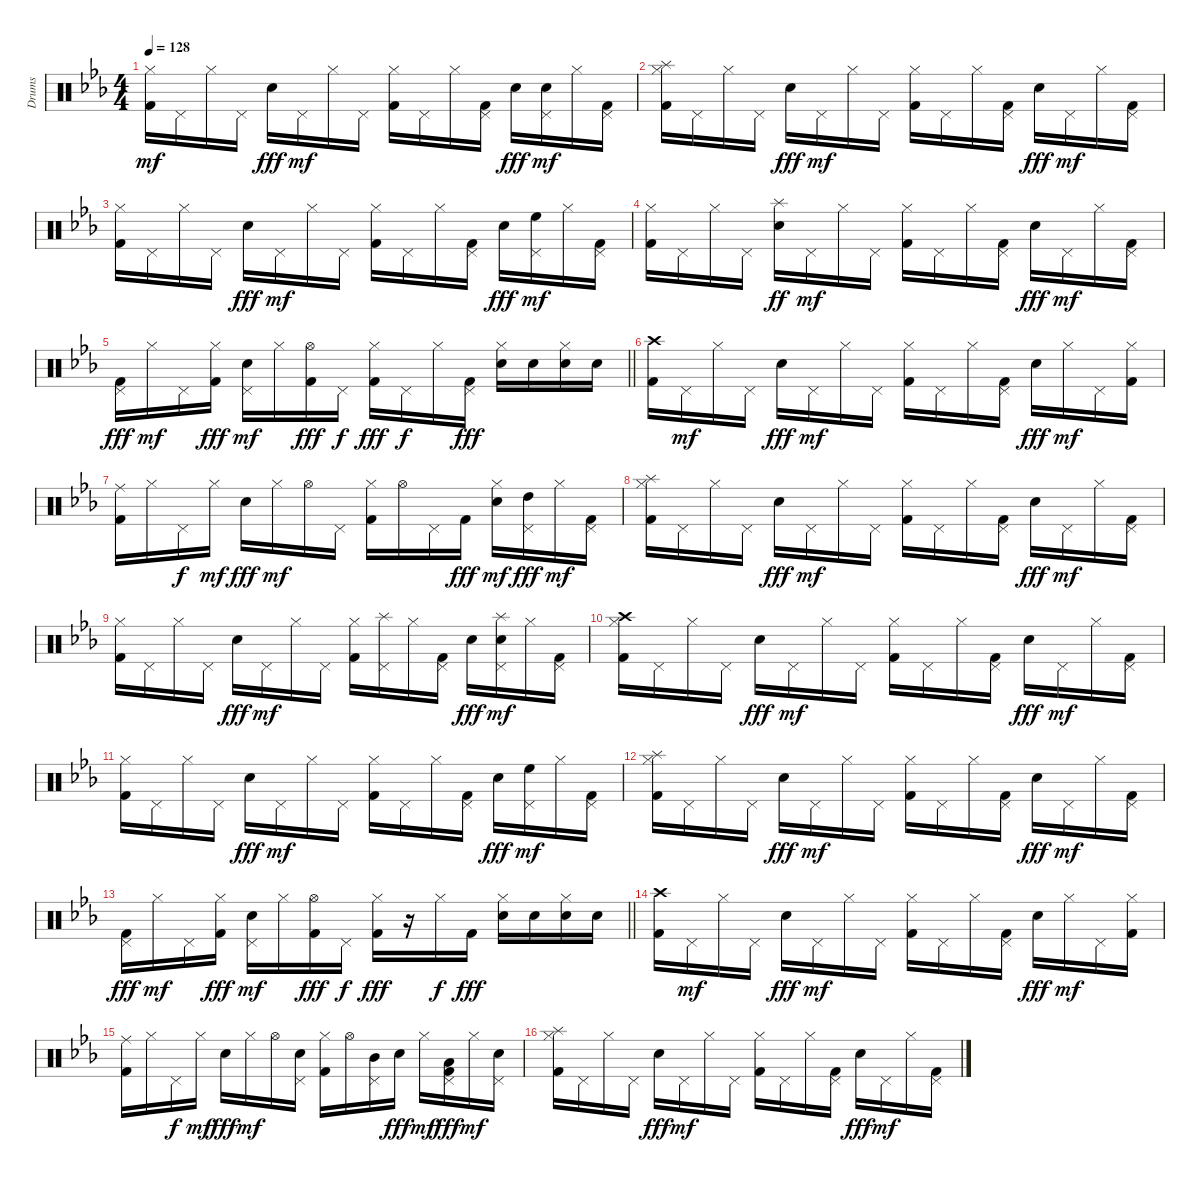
\track ("Drums" "Drums") {instrument percussion}
\staff {score}
\articulation defaults
\ts (4 4)
\tempo 128
\clef neutral
\ks cminor
("Kick (hit) 2" "Hi-Hat (closed)").16{dy mf} "Pedal Hi-Hat (hit)".16 "Hi-Hat (closed)".16 "Pedal Hi-Hat (hit)".16 "Electric Snare (hit)".16{dy fff} "Pedal Hi-Hat (hit)".16{dy mf} "Hi-Hat (closed)".16 "Pedal Hi-Hat (hit)".16 ("Kick (hit) 2" "Hi-Hat (closed)").16 "Pedal Hi-Hat (hit)".16 "Hi-Hat (closed)".16 ("Kick (hit) 2" "Pedal Hi-Hat (hit)").16 "Electric Snare (hit)".16{dy fff} ("Electric Snare (hit)" "Pedal Hi-Hat (hit)").16{dy mf} "Hi-Hat (closed)".16 ("Kick (hit) 2" "Pedal Hi-Hat (hit)").16 |
("Kick (hit) 2" "Splash (hit)" "Hi-Hat (closed)").16 "Pedal Hi-Hat (hit)".16 "Hi-Hat (closed)".16 "Pedal Hi-Hat (hit)".16 "Electric Snare (hit)".16{dy fff} "Pedal Hi-Hat (hit)".16{dy mf} "Hi-Hat (closed)".16 "Pedal Hi-Hat (hit)".16 ("Kick (hit) 2" "Hi-Hat (closed)").16 "Pedal Hi-Hat (hit)".16 "Hi-Hat (closed)".16 ("Kick (hit) 2" "Pedal Hi-Hat (hit)").16 "Electric Snare (hit)".16{dy fff} "Pedal Hi-Hat (hit)".16{dy mf} "Hi-Hat (closed)".16 ("Kick (hit) 2" "Pedal Hi-Hat (hit)").16 |
("Kick (hit) 2" "Hi-Hat (closed)").16 "Pedal Hi-Hat (hit)".16 "Hi-Hat (closed)".16 "Pedal Hi-Hat (hit)".16 "Electric Snare (hit)".16{dy fff} "Pedal Hi-Hat (hit)".16{dy mf} "Hi-Hat (closed)".16 "Pedal Hi-Hat (hit)".16 ("Kick (hit) 2" "Hi-Hat (closed)").16 "Pedal Hi-Hat (hit)".16 "Hi-Hat (closed)".16 ("Kick (hit) 2" "Pedal Hi-Hat (hit)").16 "Electric Snare (hit)".16{dy fff} ("High Floor Tom (hit)" "Pedal Hi-Hat (hit)").16{dy mf} "Hi-Hat (closed)".16 ("Kick (hit) 2" "Pedal Hi-Hat (hit)").16 |
("Kick (hit) 2" "Hi-Hat (closed)").16 "Pedal Hi-Hat (hit)".16 "Hi-Hat (closed)".16 "Pedal Hi-Hat (hit)".16 ("Electric Snare (hit)" "Splash (hit)").16{dy ff} "Pedal Hi-Hat (hit)".16{dy mf} "Hi-Hat (closed)".16 "Pedal Hi-Hat (hit)".16 ("Kick (hit) 2" "Hi-Hat (closed)").16 "Pedal Hi-Hat (hit)".16 "Hi-Hat (closed)".16 ("Kick (hit) 2" "Pedal Hi-Hat (hit)").16 "Electric Snare (hit)".16{dy fff} "Pedal Hi-Hat (hit)".16{dy mf} "Hi-Hat (closed)".16 ("Kick (hit) 2" "Pedal Hi-Hat (hit)").16 |
\barLineRight lightlight
("Kick (hit) 2" "Pedal Hi-Hat (hit)").16{dy fff} "Hi-Hat (closed)".16{dy mf} "Pedal Hi-Hat (hit)".16 ("Kick (hit) 2" "Hi-Hat (closed)").16{dy fff} ("Electric Snare (hit)" "Pedal Hi-Hat (hit)").16{dy mf} "Hi-Hat (closed)".16 ("Kick (hit) 2" "Hi-Hat (open)").16{dy fff} "Pedal Hi-Hat (hit)".16{dy f} ("Kick (hit) 2" "Hi-Hat (closed)").16{dy fff} "Pedal Hi-Hat (hit)".16{dy f} "Hi-Hat (closed)".16 ("Kick (hit) 2" "Pedal Hi-Hat (hit)").16{dy fff} ("Electric Snare (hit)" "Hi-Hat (closed)").16 "Electric Snare (hit)".16 ("Electric Snare (hit)" "Hi-Hat (closed)").16 "Electric Snare (hit)".16 |
("Kick (hit) 2" "Crash high (hit)").16 "Pedal Hi-Hat (hit)".16{dy mf} "Hi-Hat (closed)".16 "Pedal Hi-Hat (hit)".16 "Electric Snare (hit)".16{dy fff} "Pedal Hi-Hat (hit)".16{dy mf} "Hi-Hat (closed)".16 "Pedal Hi-Hat (hit)".16 ("Kick (hit) 2" "Hi-Hat (closed)").16 "Pedal Hi-Hat (hit)".16 "Hi-Hat (closed)".16 ("Kick (hit) 2" "Pedal Hi-Hat (hit)").16 "Electric Snare (hit)".16{dy fff} "Hi-Hat (closed)".16{dy mf} "Pedal Hi-Hat (hit)".16 ("Kick (hit) 2" "Hi-Hat (closed)").16 |
("Kick (hit) 2" "Ride (middle)").16 "Hi-Hat (closed)".16 "Pedal Hi-Hat (hit)".16{dy f} "Hi-Hat (closed)".16{dy mf} "Electric Snare (hit)".16{dy fff} "Hi-Hat (closed)".16{dy mf} "Hi-Hat (open)".16 "Pedal Hi-Hat (hit)".16 ("Kick (hit) 2" "Hi-Hat (closed)").16 "Hi-Hat (open)".16 "Pedal Hi-Hat (hit)".16 "Kick (hit) 2".16{dy fff} ("Electric Snare (hit)" "Hi-Hat (closed)").16{dy mf} ("High Tom (hit)" "Pedal Hi-Hat (hit)").16{dy fff} "Hi-Hat (closed)".16{dy mf} ("Kick (hit) 2" "Pedal Hi-Hat (hit)").16 |
("Kick (hit) 2" "Splash (hit)" "Hi-Hat (closed)").16 "Pedal Hi-Hat (hit)".16 "Hi-Hat (closed)".16 "Pedal Hi-Hat (hit)".16 "Electric Snare (hit)".16{dy fff} "Pedal Hi-Hat (hit)".16{dy mf} "Hi-Hat (closed)".16 "Pedal Hi-Hat (hit)".16 ("Kick (hit) 2" "Hi-Hat (closed)").16 "Pedal Hi-Hat (hit)".16 "Hi-Hat (closed)".16 ("Kick (hit) 2" "Pedal Hi-Hat (hit)").16 "Electric Snare (hit)".16{dy fff} "Pedal Hi-Hat (hit)".16{dy mf} "Hi-Hat (closed)".16 ("Kick (hit) 2" "Pedal Hi-Hat (hit)").16 |
("Kick (hit) 2" "Hi-Hat (closed)").16 "Pedal Hi-Hat (hit)".16 "Hi-Hat (closed)".16 "Pedal Hi-Hat (hit)".16 "Electric Snare (hit)".16{dy fff} "Pedal Hi-Hat (hit)".16{dy mf} "Hi-Hat (closed)".16 "Pedal Hi-Hat (hit)".16 ("Kick (hit) 2" "Hi-Hat (closed)").16 ("Splash (hit)" "Pedal Hi-Hat (hit)").16 "Hi-Hat (closed)".16 ("Kick (hit) 2" "Pedal Hi-Hat (hit)").16 "Electric Snare (hit)".16{dy fff} ("Splash (hit)" "Electric Snare (hit)" "Pedal Hi-Hat (hit)").16{dy mf} "Hi-Hat (closed)".16 ("Kick (hit) 2" "Pedal Hi-Hat (hit)").16 |
("Crash high (hit)" "Kick (hit) 2" "Hi-Hat (closed)").16 "Pedal Hi-Hat (hit)".16 "Hi-Hat (closed)".16 "Pedal Hi-Hat (hit)".16 "Electric Snare (hit)".16{dy fff} "Pedal Hi-Hat (hit)".16{dy mf} "Hi-Hat (closed)".16 "Pedal Hi-Hat (hit)".16 ("Kick (hit) 2" "Hi-Hat (closed)").16 "Pedal Hi-Hat (hit)".16 "Hi-Hat (closed)".16 ("Kick (hit) 2" "Pedal Hi-Hat (hit)").16 "Electric Snare (hit)".16{dy fff} "Pedal Hi-Hat (hit)".16{dy mf} "Hi-Hat (closed)".16 ("Kick (hit) 2" "Pedal Hi-Hat (hit)").16 |
("Kick (hit) 2" "Hi-Hat (closed)").16 "Pedal Hi-Hat (hit)".16 "Hi-Hat (closed)".16 "Pedal Hi-Hat (hit)".16 "Electric Snare (hit)".16{dy fff} "Pedal Hi-Hat (hit)".16{dy mf} "Hi-Hat (closed)".16 "Pedal Hi-Hat (hit)".16 ("Kick (hit) 2" "Hi-Hat (closed)").16 "Pedal Hi-Hat (hit)".16 "Hi-Hat (closed)".16 ("Kick (hit) 2" "Pedal Hi-Hat (hit)").16 "Electric Snare (hit)".16{dy fff} ("High Floor Tom (hit)" "Pedal Hi-Hat (hit)").16{dy mf} "Hi-Hat (closed)".16 ("Kick (hit) 2" "Pedal Hi-Hat (hit)").16 |
("Splash (hit)" "Kick (hit) 2" "Hi-Hat (closed)").16 "Pedal Hi-Hat (hit)".16 "Hi-Hat (closed)".16 "Pedal Hi-Hat (hit)".16 "Electric Snare (hit)".16{dy fff} "Pedal Hi-Hat (hit)".16{dy mf} "Hi-Hat (closed)".16 "Pedal Hi-Hat (hit)".16 ("Kick (hit) 2" "Hi-Hat (closed)").16 "Pedal Hi-Hat (hit)".16 "Hi-Hat (closed)".16 ("Kick (hit) 2" "Pedal Hi-Hat (hit)").16 "Electric Snare (hit)".16{dy fff} "Pedal Hi-Hat (hit)".16{dy mf} "Hi-Hat (closed)".16 ("Kick (hit) 2" "Pedal Hi-Hat (hit)").16 |
\barLineRight lightlight
("Kick (hit) 2" "Pedal Hi-Hat (hit)").16{dy fff} "Hi-Hat (closed)".16{dy mf} "Pedal Hi-Hat (hit)".16 ("Kick (hit) 2" "Hi-Hat (closed)").16{dy fff} ("Electric Snare (hit)" "Pedal Hi-Hat (hit)").16{dy mf} "Hi-Hat (closed)".16 ("Kick (hit) 2" "Hi-Hat (open)").16{dy fff} "Pedal Hi-Hat (hit)".16{dy f} ("Kick (hit) 2" "Hi-Hat (closed)").16{dy fff} r.16 "Hi-Hat (closed)".16{dy f} "Kick (hit) 2".16{dy fff} ("Electric Snare (hit)" "Hi-Hat (closed)").16 "Electric Snare (hit)".16 ("Electric Snare (hit)" "Hi-Hat (closed)").16 "Electric Snare (hit)".16 |
("Kick (hit) 2" "Crash high (hit)").16 "Pedal Hi-Hat (hit)".16{dy mf} "Hi-Hat (closed)".16 "Pedal Hi-Hat (hit)".16 "Electric Snare (hit)".16{dy fff} "Pedal Hi-Hat (hit)".16{dy mf} "Hi-Hat (closed)".16 "Pedal Hi-Hat (hit)".16 ("Kick (hit) 2" "Hi-Hat (closed)").16 "Pedal Hi-Hat (hit)".16 "Hi-Hat (closed)".16 ("Kick (hit) 2" "Pedal Hi-Hat (hit)").16 "Electric Snare (hit)".16{dy fff} "Hi-Hat (closed)".16{dy mf} "Pedal Hi-Hat (hit)".16 ("Kick (hit) 2" "Hi-Hat (closed)").16 |
("Kick (hit) 2" "Ride (middle)").16 "Hi-Hat (closed)".16 "Pedal Hi-Hat (hit)".16{dy f} "Hi-Hat (closed)".16{dy mf} "Electric Snare (hit)".16{dy fff} "Hi-Hat (closed)".16{dy mf} "Hi-Hat (open)".16 ("Electric Snare (hit)" "Pedal Hi-Hat (hit)").16 ("Kick (hit) 2" "Hi-Hat (closed)").16 "Hi-Hat (open)".16 ("Mid Tom (hit)" "Pedal Hi-Hat (hit)").16 "Electric Snare (hit)".16{dy fff} "Hi-Hat (closed)".16{dy mf} ("Kick (hit) 2" "Low Tom (hit)" "Pedal Hi-Hat (hit)").16{dy fff} "Hi-Hat (closed)".16{dy mf} ("Electric Snare (hit)" "Pedal Hi-Hat (hit)").16 |
("Splash (hit)" "Kick (hit) 2" "Hi-Hat (closed)").16 "Pedal Hi-Hat (hit)".16 "Hi-Hat (closed)".16 "Pedal Hi-Hat (hit)".16 "Electric Snare (hit)".16{dy fff} "Pedal Hi-Hat (hit)".16{dy mf} "Hi-Hat (closed)".16 "Pedal Hi-Hat (hit)".16 ("Kick (hit) 2" "Hi-Hat (closed)").16 "Pedal Hi-Hat (hit)".16 "Hi-Hat (closed)".16 ("Kick (hit) 2" "Pedal Hi-Hat (hit)").16 "Electric Snare (hit)".16{dy fff} "Pedal Hi-Hat (hit)".16{dy mf} "Hi-Hat (closed)".16 ("Kick (hit) 2" "Pedal Hi-Hat (hit)").16
